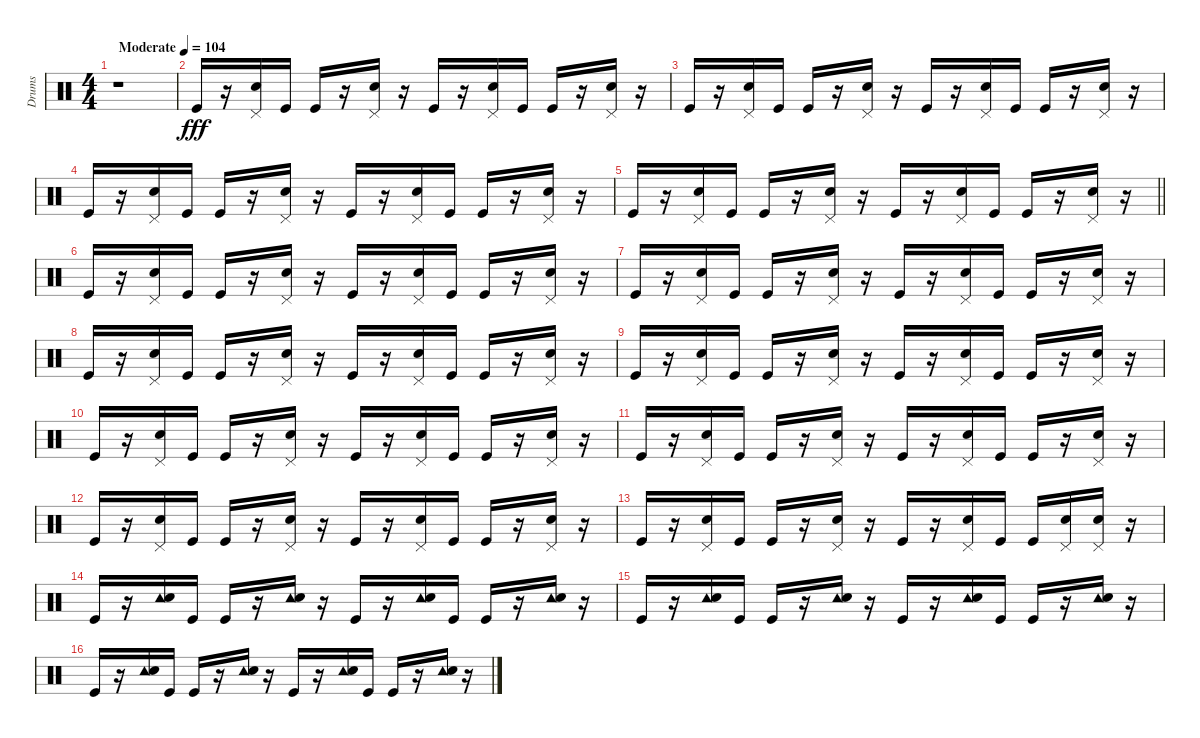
\track ("Drums" "Drums") {instrument percussion}
\staff {score}
\articulation defaults
\ts (4 4)
\tempo (104 "Moderate")
\clef neutral
\ks c
r.1{dy fff} |
"Kick (hit)".16{balance 8} r.16 ("Pedal Hi-Hat (hit)" "Electric Snare (hit)").16 "Kick (hit)".16 "Kick (hit)".16 r.16 ("Pedal Hi-Hat (hit)" "Electric Snare (hit)").16 r.16 "Kick (hit)".16 r.16 ("Pedal Hi-Hat (hit)" "Electric Snare (hit)").16 "Kick (hit)".16 "Kick (hit)".16 r.16 ("Pedal Hi-Hat (hit)" "Electric Snare (hit)").16 r.16 |
"Kick (hit)".16 r.16 ("Pedal Hi-Hat (hit)" "Electric Snare (hit)").16 "Kick (hit)".16 "Kick (hit)".16 r.16 ("Pedal Hi-Hat (hit)" "Electric Snare (hit)").16 r.16 "Kick (hit)".16 r.16 ("Pedal Hi-Hat (hit)" "Electric Snare (hit)").16 "Kick (hit)".16 "Kick (hit)".16 r.16 ("Pedal Hi-Hat (hit)" "Electric Snare (hit)").16 r.16 |
"Kick (hit)".16 r.16 ("Pedal Hi-Hat (hit)" "Electric Snare (hit)").16 "Kick (hit)".16 "Kick (hit)".16 r.16 ("Pedal Hi-Hat (hit)" "Electric Snare (hit)").16 r.16 "Kick (hit)".16 r.16 ("Pedal Hi-Hat (hit)" "Electric Snare (hit)").16 "Kick (hit)".16 "Kick (hit)".16 r.16 ("Pedal Hi-Hat (hit)" "Electric Snare (hit)").16 r.16 |
\barLineRight lightlight "Kick (hit)".16
r.16 ("Pedal Hi-Hat (hit)" "Electric Snare (hit)").16 "Kick (hit)".16 "Kick (hit)".16 r.16 ("Pedal Hi-Hat (hit)" "Electric Snare (hit)").16 r.16 "Kick (hit)".16 r.16 ("Pedal Hi-Hat (hit)" "Electric Snare (hit)").16 "Kick (hit)".16 "Kick (hit)".16 r.16 ("Pedal Hi-Hat (hit)" "Electric Snare (hit)").16 r.16 |
"Kick (hit)".16 r.16 ("Pedal Hi-Hat (hit)" "Electric Snare (hit)").16 "Kick (hit)".16 "Kick (hit)".16 r.16 ("Pedal Hi-Hat (hit)" "Electric Snare (hit)").16 r.16 "Kick (hit)".16 r.16 ("Pedal Hi-Hat (hit)" "Electric Snare (hit)").16 "Kick (hit)".16 "Kick (hit)".16 r.16 ("Pedal Hi-Hat (hit)" "Electric Snare (hit)").16 r.16 |
"Kick (hit)".16 r.16 ("Pedal Hi-Hat (hit)" "Electric Snare (hit)").16 "Kick (hit)".16 "Kick (hit)".16 r.16 ("Pedal Hi-Hat (hit)" "Electric Snare (hit)").16 r.16 "Kick (hit)".16 r.16 ("Pedal Hi-Hat (hit)" "Electric Snare (hit)").16 "Kick (hit)".16 "Kick (hit)".16 r.16 ("Pedal Hi-Hat (hit)" "Electric Snare (hit)").16 r.16 |
"Kick (hit)".16 r.16 ("Pedal Hi-Hat (hit)" "Electric Snare (hit)").16 "Kick (hit)".16 "Kick (hit)".16 r.16 ("Pedal Hi-Hat (hit)" "Electric Snare (hit)").16 r.16 "Kick (hit)".16 r.16 ("Pedal Hi-Hat (hit)" "Electric Snare (hit)").16 "Kick (hit)".16 "Kick (hit)".16 r.16 ("Pedal Hi-Hat (hit)" "Electric Snare (hit)").16 r.16 |
"Kick (hit)".16 r.16 ("Pedal Hi-Hat (hit)" "Electric Snare (hit)").16 "Kick (hit)".16 "Kick (hit)".16 r.16 ("Pedal Hi-Hat (hit)" "Electric Snare (hit)").16 r.16 "Kick (hit)".16 r.16 ("Pedal Hi-Hat (hit)" "Electric Snare (hit)").16 "Kick (hit)".16 "Kick (hit)".16 r.16 ("Pedal Hi-Hat (hit)" "Electric Snare (hit)").16 r.16 |
"Kick (hit)".16 r.16 ("Pedal Hi-Hat (hit)" "Electric Snare (hit)").16 "Kick (hit)".16 "Kick (hit)".16 r.16 ("Pedal Hi-Hat (hit)" "Electric Snare (hit)").16 r.16 "Kick (hit)".16 r.16 ("Pedal Hi-Hat (hit)" "Electric Snare (hit)").16 "Kick (hit)".16 "Kick (hit)".16 r.16 ("Pedal Hi-Hat (hit)" "Electric Snare (hit)").16 r.16 |
"Kick (hit)".16 r.16 ("Pedal Hi-Hat (hit)" "Electric Snare (hit)").16 "Kick (hit)".16 "Kick (hit)".16 r.16 ("Pedal Hi-Hat (hit)" "Electric Snare (hit)").16 r.16 "Kick (hit)".16 r.16 ("Pedal Hi-Hat (hit)" "Electric Snare (hit)").16 "Kick (hit)".16 "Kick (hit)".16 r.16 ("Pedal Hi-Hat (hit)" "Electric Snare (hit)").16 r.16 |
"Kick (hit)".16 r.16 ("Pedal Hi-Hat (hit)" "Electric Snare (hit)").16 "Kick (hit)".16 "Kick (hit)".16 r.16 ("Pedal Hi-Hat (hit)" "Electric Snare (hit)").16 r.16 "Kick (hit)".16 r.16 ("Pedal Hi-Hat (hit)" "Electric Snare (hit)").16 "Kick (hit)".16 "Kick (hit)".16 r.16 ("Pedal Hi-Hat (hit)" "Electric Snare (hit)").16 r.16 |
"Kick (hit)".16 r.16 ("Pedal Hi-Hat (hit)" "Electric Snare (hit)").16 "Kick (hit)".16 "Kick (hit)".16 r.16 ("Pedal Hi-Hat (hit)" "Electric Snare (hit)").16 r.16 "Kick (hit)".16 r.16 ("Pedal Hi-Hat (hit)" "Electric Snare (hit)").16 "Kick (hit)".16 "Kick (hit)".16 ("Pedal Hi-Hat (hit)" "Electric Snare (hit)").16 ("Electric Snare (hit)" "Pedal Hi-Hat (hit)").16 r.16 |
"Kick (hit)".16 r.16 ("Tambourine (hit)" "Electric Snare (hit)").16 "Kick (hit)".16 "Kick (hit)".16 r.16 ("Tambourine (hit)" "Electric Snare (hit)").16 r.16 "Kick (hit)".16 r.16 ("Tambourine (hit)" "Electric Snare (hit)").16 "Kick (hit)".16 "Kick (hit)".16 r.16 ("Tambourine (hit)" "Electric Snare (hit)").16 r.16 |
"Kick (hit)".16 r.16 ("Tambourine (hit)" "Electric Snare (hit)").16 "Kick (hit)".16 "Kick (hit)".16 r.16 ("Tambourine (hit)" "Electric Snare (hit)").16 r.16 "Kick (hit)".16 r.16 ("Tambourine (hit)" "Electric Snare (hit)").16 "Kick (hit)".16 "Kick (hit)".16 r.16 ("Tambourine (hit)" "Electric Snare (hit)").16 r.16 |
"Kick (hit)".16 r.16 ("Tambourine (hit)" "Electric Snare (hit)").16 "Kick (hit)".16 "Kick (hit)".16 r.16 ("Tambourine (hit)" "Electric Snare (hit)").16 r.16 "Kick (hit)".16 r.16 ("Tambourine (hit)" "Electric Snare (hit)").16 "Kick (hit)".16 "Kick (hit)".16 r.16 ("Tambourine (hit)" "Electric Snare (hit)").16 r.16
